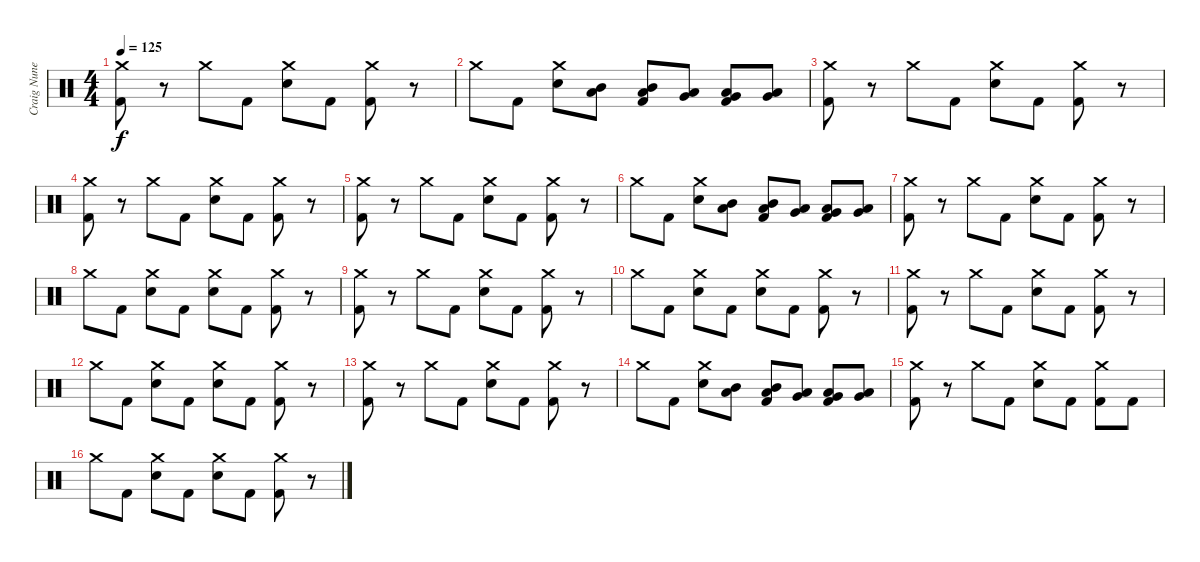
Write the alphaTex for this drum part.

\track ("Craig Nunenmacher (Drums)" "Craig Nune") {instrument percussion}
\staff {score}
\articulation defaults
\ts (4 4)
\tempo 125
\clef neutral
\ks c
("Crash medium (hit)" "Kick (hit) 2").8{dy f} r.8 "Crash medium (hit)".8 "Kick (hit) 2".8 ("Crash medium (hit)" "Snare (hit) 2").8 "Kick (hit) 2".8 ("Crash medium (hit)" "Kick (hit) 2").8 r.8 |
"Crash medium (hit)".8 "Kick (hit) 2".8 ("Crash medium (hit)" "Snare (hit) 2").8 ("Mid Tom (hit)" "Low Tom (hit)").8 ("Mid Tom (hit)" "Low Tom (hit)" "Kick (hit) 2").8 ("Low Tom (hit)" "Very Low Tom (hit)").8 ("Low Tom (hit)" "Very Low Tom (hit)" "Kick (hit) 2").8 ("Very Low Tom (hit)" "Low Floor Tom (hit)").8 |
("Crash medium (hit)" "Kick (hit) 2").8 r.8 "Crash medium (hit)".8 "Kick (hit) 2".8 ("Crash medium (hit)" "Snare (hit) 2").8 "Kick (hit) 2".8 ("Crash medium (hit)" "Kick (hit) 2").8 r.8 |
("Crash medium (hit)" "Kick (hit) 2").8 r.8 "Crash medium (hit)".8 "Kick (hit) 2".8 ("Crash medium (hit)" "Snare (hit) 2").8 "Kick (hit) 2".8 ("Crash medium (hit)" "Kick (hit) 2").8 r.8 |
("Crash medium (hit)" "Kick (hit) 2").8 r.8 "Crash medium (hit)".8 "Kick (hit) 2".8 ("Crash medium (hit)" "Snare (hit) 2").8 "Kick (hit) 2".8 ("Crash medium (hit)" "Kick (hit) 2").8 r.8 |
"Crash medium (hit)".8 "Kick (hit) 2".8 ("Crash medium (hit)" "Snare (hit) 2").8 ("Mid Tom (hit)" "Low Tom (hit)").8 ("Mid Tom (hit)" "Low Tom (hit)" "Kick (hit) 2").8 ("Low Tom (hit)" "Very Low Tom (hit)").8 ("Low Tom (hit)" "Very Low Tom (hit)" "Kick (hit) 2").8 ("Very Low Tom (hit)" "Low Floor Tom (hit)").8 |
("Crash medium (hit)" "Kick (hit) 2").8 r.8 "Crash medium (hit)".8 "Kick (hit) 2".8 ("Crash medium (hit)" "Snare (hit) 2").8 "Kick (hit) 2".8 ("Crash medium (hit)" "Kick (hit) 2").8 r.8 |
"Crash medium (hit)".8 "Kick (hit) 2".8 ("Crash medium (hit)" "Snare (hit) 2").8 "Kick (hit) 2".8 ("Crash medium (hit)" "Snare (hit) 2").8 "Kick (hit) 2".8 ("Crash medium (hit)" "Kick (hit) 2").8 r.8 |
("Crash medium (hit)" "Kick (hit) 2").8 r.8 "Crash medium (hit)".8 "Kick (hit) 2".8 ("Crash medium (hit)" "Snare (hit) 2").8 "Kick (hit) 2".8 ("Crash medium (hit)" "Kick (hit) 2").8 r.8 |
"Crash medium (hit)".8 "Kick (hit) 2".8 ("Crash medium (hit)" "Snare (hit) 2").8 "Kick (hit) 2".8 ("Crash medium (hit)" "Snare (hit) 2").8 "Kick (hit) 2".8 ("Crash medium (hit)" "Kick (hit) 2").8 r.8 |
("Crash medium (hit)" "Kick (hit) 2").8 r.8 "Crash medium (hit)".8 "Kick (hit) 2".8 ("Crash medium (hit)" "Snare (hit) 2").8 "Kick (hit) 2".8 ("Crash medium (hit)" "Kick (hit) 2").8 r.8 |
"Crash medium (hit)".8 "Kick (hit) 2".8 ("Crash medium (hit)" "Snare (hit) 2").8 "Kick (hit) 2".8 ("Crash medium (hit)" "Snare (hit) 2").8 "Kick (hit) 2".8 ("Crash medium (hit)" "Kick (hit) 2").8 r.8 |
("Crash medium (hit)" "Kick (hit) 2").8 r.8 "Crash medium (hit)".8 "Kick (hit) 2".8 ("Crash medium (hit)" "Snare (hit) 2").8 "Kick (hit) 2".8 ("Crash medium (hit)" "Kick (hit) 2").8 r.8 |
"Crash medium (hit)".8 "Kick (hit) 2".8 ("Crash medium (hit)" "Snare (hit) 2").8 ("Mid Tom (hit)" "Low Tom (hit)").8 ("Mid Tom (hit)" "Low Tom (hit)" "Kick (hit) 2").8 ("Low Tom (hit)" "Very Low Tom (hit)").8 ("Low Tom (hit)" "Very Low Tom (hit)" "Kick (hit) 2").8 ("Very Low Tom (hit)" "Low Floor Tom (hit)").8 |
("Crash medium (hit)" "Kick (hit) 2").8 r.8 "Crash medium (hit)".8 "Kick (hit) 2".8 ("Crash medium (hit)" "Snare (hit) 2").8 "Kick (hit) 2".8 ("Crash medium (hit)" "Kick (hit) 2").8 "Kick (hit) 2".8 |
"Crash medium (hit)".8 "Kick (hit) 2".8 ("Crash medium (hit)" "Snare (hit) 2").8 "Kick (hit) 2".8 ("Crash medium (hit)" "Snare (hit) 2").8 "Kick (hit) 2".8 ("Crash medium (hit)" "Kick (hit) 2").8 r.8
